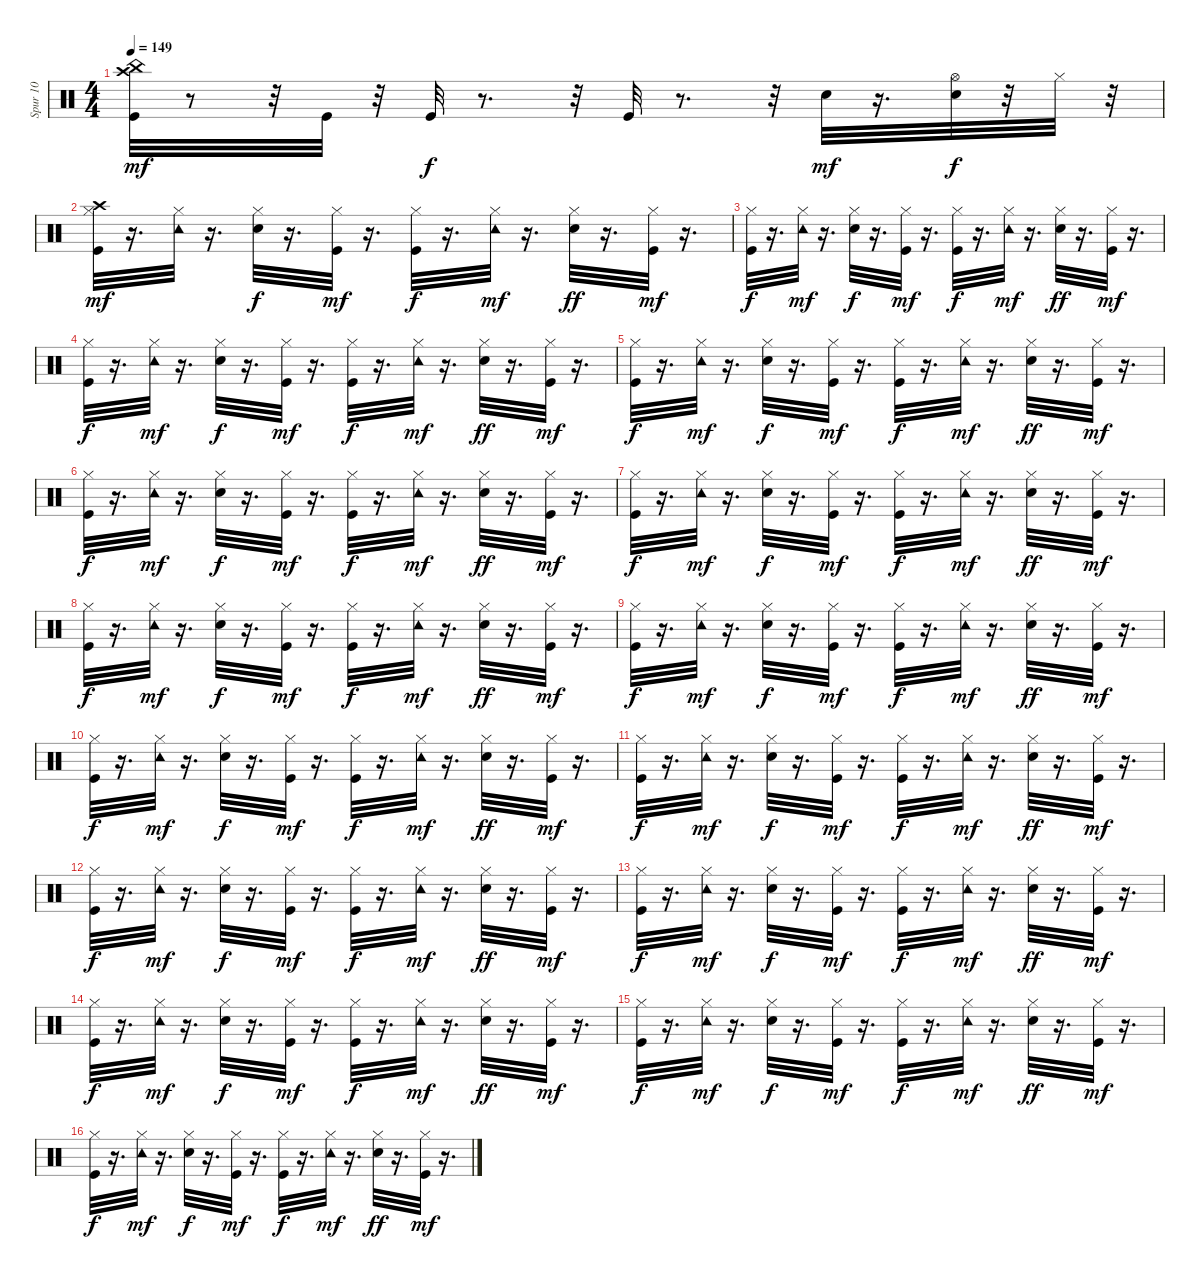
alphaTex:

\track ("Spur 10" "Spur 10") {instrument percussion}
\staff {score}
\articulation defaults
\ts (4 4)
\tempo 149
\clef neutral
\ks c
("Kick (hit)" "China (choke)" "Crash high (hit)").32{dy mf} r.8 r.32 "Kick (hit)".32 r.32 "Kick (hit)".32{dy f} r.8{d} r.32 "Kick (hit)".32 r.8{d} r.32 "Snare (hit) 2".32{dy mf} r.16{d} ("Snare (hit) 2" "Hi-Hat (open)").32{dy f} r.32 "Hi-Hat (closed)".32 r.32 |
("Kick (hit)" "Hi-Hat (closed)" "Crash high (hit)").32{dy mf} r.16{d} ("Hi-Hat (closed)" "Tambourine (hit)").32 r.16{d} ("Snare (hit) 2" "Hi-Hat (closed)").32{dy f} r.16{d} ("Kick (hit)" "Hi-Hat (closed)").32{dy mf} r.16{d} ("Kick (hit)" "Hi-Hat (closed)").32{dy f} r.16{d} ("Hi-Hat (closed)" "Tambourine (hit)").32{dy mf} r.16{d} ("Snare (hit) 2" "Hi-Hat (closed)").32{dy ff} r.16{d} ("Kick (hit)" "Hi-Hat (closed)").32{dy mf} r.16{d} |
("Kick (hit)" "Hi-Hat (closed)").32{dy f} r.16{d} ("Hi-Hat (closed)" "Tambourine (hit)").32{dy mf} r.16{d} ("Snare (hit) 2" "Hi-Hat (closed)").32{dy f} r.16{d} ("Kick (hit)" "Hi-Hat (closed)").32{dy mf} r.16{d} ("Kick (hit)" "Hi-Hat (closed)").32{dy f} r.16{d} ("Hi-Hat (closed)" "Tambourine (hit)").32{dy mf} r.16{d} ("Snare (hit) 2" "Hi-Hat (closed)").32{dy ff} r.16{d} ("Kick (hit)" "Hi-Hat (closed)").32{dy mf} r.16{d} |
("Kick (hit)" "Hi-Hat (closed)").32{dy f} r.16{d} ("Hi-Hat (closed)" "Tambourine (hit)").32{dy mf} r.16{d} ("Snare (hit) 2" "Hi-Hat (closed)").32{dy f} r.16{d} ("Kick (hit)" "Hi-Hat (closed)").32{dy mf} r.16{d} ("Kick (hit)" "Hi-Hat (closed)").32{dy f} r.16{d} ("Hi-Hat (closed)" "Tambourine (hit)").32{dy mf} r.16{d} ("Snare (hit) 2" "Hi-Hat (closed)").32{dy ff} r.16{d} ("Kick (hit)" "Hi-Hat (closed)").32{dy mf} r.16{d} |
("Kick (hit)" "Hi-Hat (closed)").32{dy f} r.16{d} ("Hi-Hat (closed)" "Tambourine (hit)").32{dy mf} r.16{d} ("Snare (hit) 2" "Hi-Hat (closed)").32{dy f} r.16{d} ("Kick (hit)" "Hi-Hat (closed)").32{dy mf} r.16{d} ("Kick (hit)" "Hi-Hat (closed)").32{dy f} r.16{d} ("Hi-Hat (closed)" "Tambourine (hit)").32{dy mf} r.16{d} ("Snare (hit) 2" "Hi-Hat (closed)").32{dy ff} r.16{d} ("Kick (hit)" "Hi-Hat (closed)").32{dy mf} r.16{d} |
("Kick (hit)" "Hi-Hat (closed)").32{dy f} r.16{d} ("Hi-Hat (closed)" "Tambourine (hit)").32{dy mf} r.16{d} ("Snare (hit) 2" "Hi-Hat (closed)").32{dy f} r.16{d} ("Kick (hit)" "Hi-Hat (closed)").32{dy mf} r.16{d} ("Kick (hit)" "Hi-Hat (closed)").32{dy f} r.16{d} ("Hi-Hat (closed)" "Tambourine (hit)").32{dy mf} r.16{d} ("Snare (hit) 2" "Hi-Hat (closed)").32{dy ff} r.16{d} ("Kick (hit)" "Hi-Hat (closed)").32{dy mf} r.16{d} |
("Kick (hit)" "Hi-Hat (closed)").32{dy f} r.16{d} ("Hi-Hat (closed)" "Tambourine (hit)").32{dy mf} r.16{d} ("Snare (hit) 2" "Hi-Hat (closed)").32{dy f} r.16{d} ("Kick (hit)" "Hi-Hat (closed)").32{dy mf} r.16{d} ("Kick (hit)" "Hi-Hat (closed)").32{dy f} r.16{d} ("Hi-Hat (closed)" "Tambourine (hit)").32{dy mf} r.16{d} ("Snare (hit) 2" "Hi-Hat (closed)").32{dy ff} r.16{d} ("Kick (hit)" "Hi-Hat (closed)").32{dy mf} r.16{d} |
("Kick (hit)" "Hi-Hat (closed)").32{dy f} r.16{d} ("Hi-Hat (closed)" "Tambourine (hit)").32{dy mf} r.16{d} ("Snare (hit) 2" "Hi-Hat (closed)").32{dy f} r.16{d} ("Kick (hit)" "Hi-Hat (closed)").32{dy mf} r.16{d} ("Kick (hit)" "Hi-Hat (closed)").32{dy f} r.16{d} ("Hi-Hat (closed)" "Tambourine (hit)").32{dy mf} r.16{d} ("Snare (hit) 2" "Hi-Hat (closed)").32{dy ff} r.16{d} ("Kick (hit)" "Hi-Hat (closed)").32{dy mf} r.16{d} |
("Kick (hit)" "Hi-Hat (closed)").32{dy f} r.16{d} ("Hi-Hat (closed)" "Tambourine (hit)").32{dy mf} r.16{d} ("Snare (hit) 2" "Hi-Hat (closed)").32{dy f} r.16{d} ("Kick (hit)" "Hi-Hat (closed)").32{dy mf} r.16{d} ("Kick (hit)" "Hi-Hat (closed)").32{dy f} r.16{d} ("Hi-Hat (closed)" "Tambourine (hit)").32{dy mf} r.16{d} ("Snare (hit) 2" "Hi-Hat (closed)").32{dy ff} r.16{d} ("Kick (hit)" "Hi-Hat (closed)").32{dy mf} r.16{d} |
("Kick (hit)" "Hi-Hat (closed)").32{dy f} r.16{d} ("Hi-Hat (closed)" "Tambourine (hit)").32{dy mf} r.16{d} ("Snare (hit) 2" "Hi-Hat (closed)").32{dy f} r.16{d} ("Kick (hit)" "Hi-Hat (closed)").32{dy mf} r.16{d} ("Kick (hit)" "Hi-Hat (closed)").32{dy f} r.16{d} ("Hi-Hat (closed)" "Tambourine (hit)").32{dy mf} r.16{d} ("Snare (hit) 2" "Hi-Hat (closed)").32{dy ff} r.16{d} ("Kick (hit)" "Hi-Hat (closed)").32{dy mf} r.16{d} |
("Kick (hit)" "Hi-Hat (closed)").32{dy f} r.16{d} ("Hi-Hat (closed)" "Tambourine (hit)").32{dy mf} r.16{d} ("Snare (hit) 2" "Hi-Hat (closed)").32{dy f} r.16{d} ("Kick (hit)" "Hi-Hat (closed)").32{dy mf} r.16{d} ("Kick (hit)" "Hi-Hat (closed)").32{dy f} r.16{d} ("Hi-Hat (closed)" "Tambourine (hit)").32{dy mf} r.16{d} ("Snare (hit) 2" "Hi-Hat (closed)").32{dy ff} r.16{d} ("Kick (hit)" "Hi-Hat (closed)").32{dy mf} r.16{d} |
("Kick (hit)" "Hi-Hat (closed)").32{dy f} r.16{d} ("Hi-Hat (closed)" "Tambourine (hit)").32{dy mf} r.16{d} ("Snare (hit) 2" "Hi-Hat (closed)").32{dy f} r.16{d} ("Kick (hit)" "Hi-Hat (closed)").32{dy mf} r.16{d} ("Kick (hit)" "Hi-Hat (closed)").32{dy f} r.16{d} ("Hi-Hat (closed)" "Tambourine (hit)").32{dy mf} r.16{d} ("Snare (hit) 2" "Hi-Hat (closed)").32{dy ff} r.16{d} ("Kick (hit)" "Hi-Hat (closed)").32{dy mf} r.16{d} |
("Kick (hit)" "Hi-Hat (closed)").32{dy f} r.16{d} ("Hi-Hat (closed)" "Tambourine (hit)").32{dy mf} r.16{d} ("Snare (hit) 2" "Hi-Hat (closed)").32{dy f} r.16{d} ("Kick (hit)" "Hi-Hat (closed)").32{dy mf} r.16{d} ("Kick (hit)" "Hi-Hat (closed)").32{dy f} r.16{d} ("Hi-Hat (closed)" "Tambourine (hit)").32{dy mf} r.16{d} ("Snare (hit) 2" "Hi-Hat (closed)").32{dy ff} r.16{d} ("Kick (hit)" "Hi-Hat (closed)").32{dy mf} r.16{d} |
("Kick (hit)" "Hi-Hat (closed)").32{dy f} r.16{d} ("Hi-Hat (closed)" "Tambourine (hit)").32{dy mf} r.16{d} ("Snare (hit) 2" "Hi-Hat (closed)").32{dy f} r.16{d} ("Kick (hit)" "Hi-Hat (closed)").32{dy mf} r.16{d} ("Kick (hit)" "Hi-Hat (closed)").32{dy f} r.16{d} ("Hi-Hat (closed)" "Tambourine (hit)").32{dy mf} r.16{d} ("Snare (hit) 2" "Hi-Hat (closed)").32{dy ff} r.16{d} ("Kick (hit)" "Hi-Hat (closed)").32{dy mf} r.16{d} |
("Kick (hit)" "Hi-Hat (closed)").32{dy f} r.16{d} ("Hi-Hat (closed)" "Tambourine (hit)").32{dy mf} r.16{d} ("Snare (hit) 2" "Hi-Hat (closed)").32{dy f} r.16{d} ("Kick (hit)" "Hi-Hat (closed)").32{dy mf} r.16{d} ("Kick (hit)" "Hi-Hat (closed)").32{dy f} r.16{d} ("Hi-Hat (closed)" "Tambourine (hit)").32{dy mf} r.16{d} ("Snare (hit) 2" "Hi-Hat (closed)").32{dy ff} r.16{d} ("Kick (hit)" "Hi-Hat (closed)").32{dy mf} r.16{d} |
("Kick (hit)" "Hi-Hat (closed)").32{dy f} r.16{d} ("Hi-Hat (closed)" "Tambourine (hit)").32{dy mf} r.16{d} ("Snare (hit) 2" "Hi-Hat (closed)").32{dy f} r.16{d} ("Kick (hit)" "Hi-Hat (closed)").32{dy mf} r.16{d} ("Kick (hit)" "Hi-Hat (closed)").32{dy f} r.16{d} ("Hi-Hat (closed)" "Tambourine (hit)").32{dy mf} r.16{d} ("Snare (hit) 2" "Hi-Hat (closed)").32{dy ff} r.16{d} ("Kick (hit)" "Hi-Hat (closed)").32{dy mf} r.16{d}
